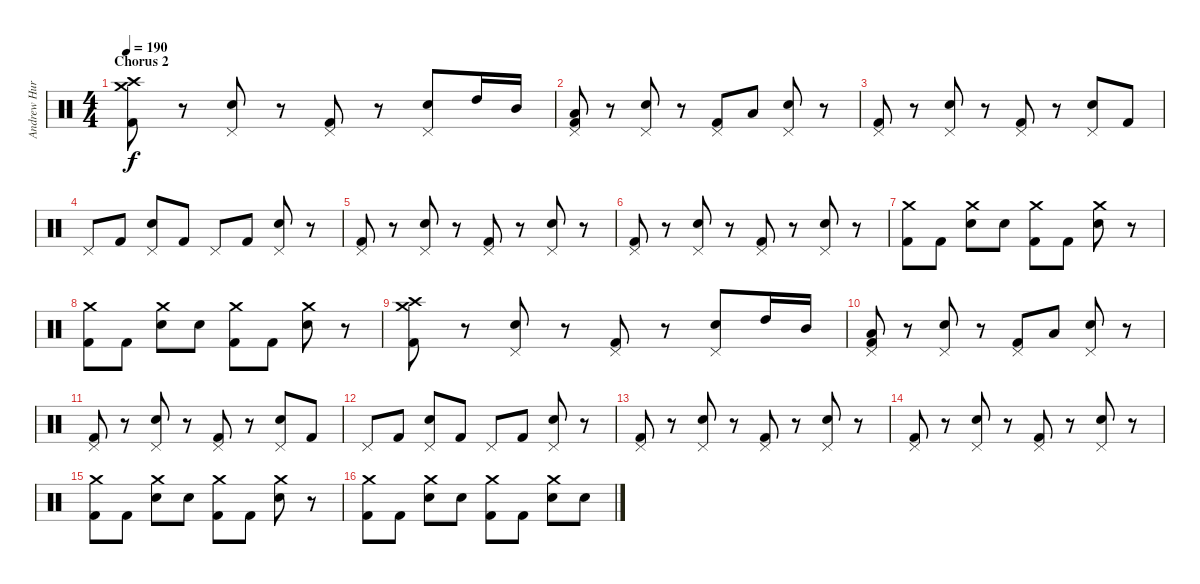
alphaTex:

\track ("Andrew Hurley (Drums)" "Andrew Hur") {instrument percussion}
\staff {score}
\articulation defaults
\ts (4 4)
\section ("" "Chorus 2")
\tempo 190
\clef neutral
\ks c
("Crash high (hit)" "Crash medium (hit)" "Kick (hit) 2").8{dy f} r.8 ("Pedal Hi-Hat (hit)" "Electric Snare (hit)").8 r.8 ("Pedal Hi-Hat (hit)" "Kick (hit) 2").8 r.8 ("Pedal Hi-Hat (hit)" "Electric Snare (hit)").8 "High Tom (hit)".16 "Mid Tom (hit)".16 |
("Pedal Hi-Hat (hit)" "Low Tom (hit)" "Kick (hit) 2").8 r.8 ("Pedal Hi-Hat (hit)" "Electric Snare (hit)").8 r.8 ("Pedal Hi-Hat (hit)" "Kick (hit) 2").8 "Low Tom (hit)".8 ("Pedal Hi-Hat (hit)" "Electric Snare (hit)").8 r.8 |
("Pedal Hi-Hat (hit)" "Kick (hit) 2").8 r.8 ("Pedal Hi-Hat (hit)" "Electric Snare (hit)").8 r.8 ("Pedal Hi-Hat (hit)" "Kick (hit) 2").8 r.8 ("Pedal Hi-Hat (hit)" "Electric Snare (hit)").8 "Kick (hit) 2".8 |
"Pedal Hi-Hat (hit)".8 "Kick (hit) 2".8 ("Pedal Hi-Hat (hit)" "Electric Snare (hit)").8 "Kick (hit) 2".8 "Pedal Hi-Hat (hit)".8 "Kick (hit) 2".8 ("Pedal Hi-Hat (hit)" "Electric Snare (hit)").8 r.8 |
("Pedal Hi-Hat (hit)" "Kick (hit) 2").8 r.8 ("Pedal Hi-Hat (hit)" "Electric Snare (hit)").8 r.8 ("Pedal Hi-Hat (hit)" "Kick (hit) 2").8 r.8 ("Pedal Hi-Hat (hit)" "Electric Snare (hit)").8 r.8 |
("Pedal Hi-Hat (hit)" "Kick (hit) 2").8 r.8 ("Pedal Hi-Hat (hit)" "Electric Snare (hit)").8 r.8 ("Pedal Hi-Hat (hit)" "Kick (hit) 2").8 r.8 ("Pedal Hi-Hat (hit)" "Electric Snare (hit)").8 r.8 |
("Crash medium (hit)" "Kick (hit) 2").8 "Kick (hit) 2".8 ("Crash medium (hit)" "Electric Snare (hit)").8 "Electric Snare (hit)".8 ("Crash medium (hit)" "Kick (hit) 2").8 "Kick (hit) 2".8 ("Crash medium (hit)" "Electric Snare (hit)").8 r.8 |
("Crash medium (hit)" "Kick (hit) 2").8 "Kick (hit) 2".8 ("Crash medium (hit)" "Electric Snare (hit)").8 "Electric Snare (hit)".8 ("Crash medium (hit)" "Kick (hit) 2").8 "Kick (hit) 2".8 ("Crash medium (hit)" "Electric Snare (hit)").8 r.8 |
("Crash high (hit)" "Crash medium (hit)" "Kick (hit) 2").8 r.8 ("Pedal Hi-Hat (hit)" "Electric Snare (hit)").8 r.8 ("Pedal Hi-Hat (hit)" "Kick (hit) 2").8 r.8 ("Pedal Hi-Hat (hit)" "Electric Snare (hit)").8 "High Tom (hit)".16 "Mid Tom (hit)".16 |
("Pedal Hi-Hat (hit)" "Low Tom (hit)" "Kick (hit) 2").8 r.8 ("Pedal Hi-Hat (hit)" "Electric Snare (hit)").8 r.8 ("Pedal Hi-Hat (hit)" "Kick (hit) 2").8 "Low Tom (hit)".8 ("Pedal Hi-Hat (hit)" "Electric Snare (hit)").8 r.8 |
("Pedal Hi-Hat (hit)" "Kick (hit) 2").8 r.8 ("Pedal Hi-Hat (hit)" "Electric Snare (hit)").8 r.8 ("Pedal Hi-Hat (hit)" "Kick (hit) 2").8 r.8 ("Pedal Hi-Hat (hit)" "Electric Snare (hit)").8 "Kick (hit) 2".8 |
"Pedal Hi-Hat (hit)".8 "Kick (hit) 2".8 ("Pedal Hi-Hat (hit)" "Electric Snare (hit)").8 "Kick (hit) 2".8 "Pedal Hi-Hat (hit)".8 "Kick (hit) 2".8 ("Pedal Hi-Hat (hit)" "Electric Snare (hit)").8 r.8 |
("Pedal Hi-Hat (hit)" "Kick (hit) 2").8 r.8 ("Pedal Hi-Hat (hit)" "Electric Snare (hit)").8 r.8 ("Pedal Hi-Hat (hit)" "Kick (hit) 2").8 r.8 ("Pedal Hi-Hat (hit)" "Electric Snare (hit)").8 r.8 |
("Pedal Hi-Hat (hit)" "Kick (hit) 2").8 r.8 ("Pedal Hi-Hat (hit)" "Electric Snare (hit)").8 r.8 ("Pedal Hi-Hat (hit)" "Kick (hit) 2").8 r.8 ("Pedal Hi-Hat (hit)" "Electric Snare (hit)").8 r.8 |
("Crash medium (hit)" "Kick (hit) 2").8 "Kick (hit) 2".8 ("Crash medium (hit)" "Electric Snare (hit)").8 "Electric Snare (hit)".8 ("Crash medium (hit)" "Kick (hit) 2").8 "Kick (hit) 2".8 ("Crash medium (hit)" "Electric Snare (hit)").8 r.8 |
("Crash medium (hit)" "Kick (hit) 2").8 "Kick (hit) 2".8 ("Crash medium (hit)" "Electric Snare (hit)").8 "Electric Snare (hit)".8 ("Crash medium (hit)" "Kick (hit) 2").8 "Kick (hit) 2".8 ("Crash medium (hit)" "Electric Snare (hit)").8 "Electric Snare (hit)".8
